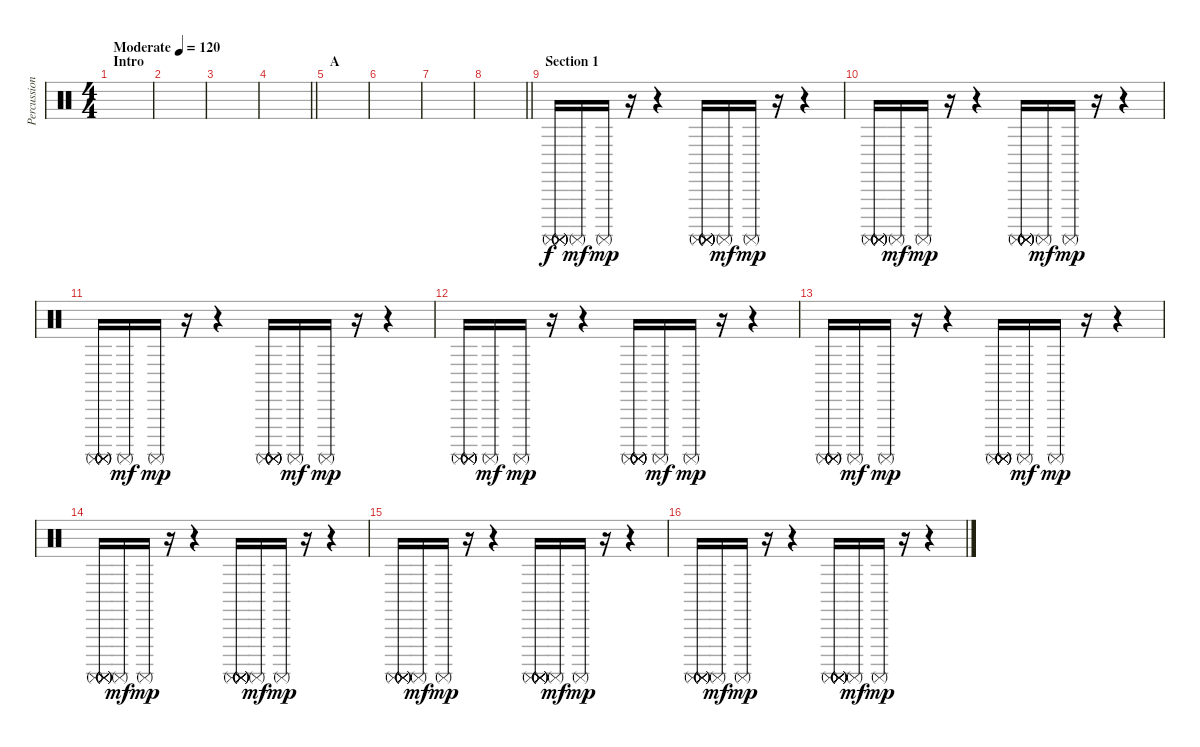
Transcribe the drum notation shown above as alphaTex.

\track ("Percussion" "Percussion") {instrument percussion}
\staff {score}
\articulation defaults
\ts (4 4)
\section ("" "Intro")
\tempo (120 "Moderate")
\clef neutral
\ks c
|
|
|
\barLineRight lightlight
|
\section ("" "A")
|
|
|
\barLineRight lightlight
|
\section ("" "Section 1")
("Surdo (mute)" "Surdo (mute)" "Surdo (mute)" "Surdo (mute)" "Surdo (mute)").16 "Surdo (mute)".16{dy mf} "Surdo (mute)".16{dy mp} r.16 r.4 ("Surdo (mute)" "Surdo (mute)" "Surdo (mute)" "Surdo (mute)" "Surdo (mute)" "Surdo (mute)").16 "Surdo (mute)".16{dy mf} "Surdo (mute)".16{dy mp} r.16 r.4 |
("Surdo (mute)" "Surdo (mute)" "Surdo (mute)" "Surdo (mute)" "Surdo (mute)").16 "Surdo (mute)".16{dy mf} "Surdo (mute)".16{dy mp} r.16 r.4 ("Surdo (mute)" "Surdo (mute)" "Surdo (mute)" "Surdo (mute)" "Surdo (mute)" "Surdo (mute)").16 "Surdo (mute)".16{dy mf} "Surdo (mute)".16{dy mp} r.16 r.4 |
("Surdo (mute)" "Surdo (mute)" "Surdo (mute)" "Surdo (mute)" "Surdo (mute)").16 "Surdo (mute)".16{dy mf} "Surdo (mute)".16{dy mp} r.16 r.4 ("Surdo (mute)" "Surdo (mute)" "Surdo (mute)" "Surdo (mute)" "Surdo (mute)" "Surdo (mute)").16 "Surdo (mute)".16{dy mf} "Surdo (mute)".16{dy mp} r.16 r.4 |
("Surdo (mute)" "Surdo (mute)" "Surdo (mute)" "Surdo (mute)" "Surdo (mute)").16 "Surdo (mute)".16{dy mf} "Surdo (mute)".16{dy mp} r.16 r.4 ("Surdo (mute)" "Surdo (mute)" "Surdo (mute)" "Surdo (mute)" "Surdo (mute)" "Surdo (mute)").16 "Surdo (mute)".16{dy mf} "Surdo (mute)".16{dy mp} r.16 r.4 |
("Surdo (mute)" "Surdo (mute)" "Surdo (mute)" "Surdo (mute)" "Surdo (mute)").16 "Surdo (mute)".16{dy mf} "Surdo (mute)".16{dy mp} r.16 r.4 ("Surdo (mute)" "Surdo (mute)" "Surdo (mute)" "Surdo (mute)" "Surdo (mute)" "Surdo (mute)").16 "Surdo (mute)".16{dy mf} "Surdo (mute)".16{dy mp} r.16 r.4 |
("Surdo (mute)" "Surdo (mute)" "Surdo (mute)" "Surdo (mute)" "Surdo (mute)").16 "Surdo (mute)".16{dy mf} "Surdo (mute)".16{dy mp} r.16 r.4 ("Surdo (mute)" "Surdo (mute)" "Surdo (mute)" "Surdo (mute)" "Surdo (mute)" "Surdo (mute)").16 "Surdo (mute)".16{dy mf} "Surdo (mute)".16{dy mp} r.16 r.4 |
("Surdo (mute)" "Surdo (mute)" "Surdo (mute)" "Surdo (mute)" "Surdo (mute)").16 "Surdo (mute)".16{dy mf} "Surdo (mute)".16{dy mp} r.16 r.4 ("Surdo (mute)" "Surdo (mute)" "Surdo (mute)" "Surdo (mute)" "Surdo (mute)" "Surdo (mute)").16 "Surdo (mute)".16{dy mf} "Surdo (mute)".16{dy mp} r.16 r.4 |
("Surdo (mute)" "Surdo (mute)" "Surdo (mute)" "Surdo (mute)" "Surdo (mute)").16 "Surdo (mute)".16{dy mf} "Surdo (mute)".16{dy mp} r.16 r.4 ("Surdo (mute)" "Surdo (mute)" "Surdo (mute)" "Surdo (mute)" "Surdo (mute)" "Surdo (mute)").16 "Surdo (mute)".16{dy mf} "Surdo (mute)".16{dy mp} r.16 r.4
